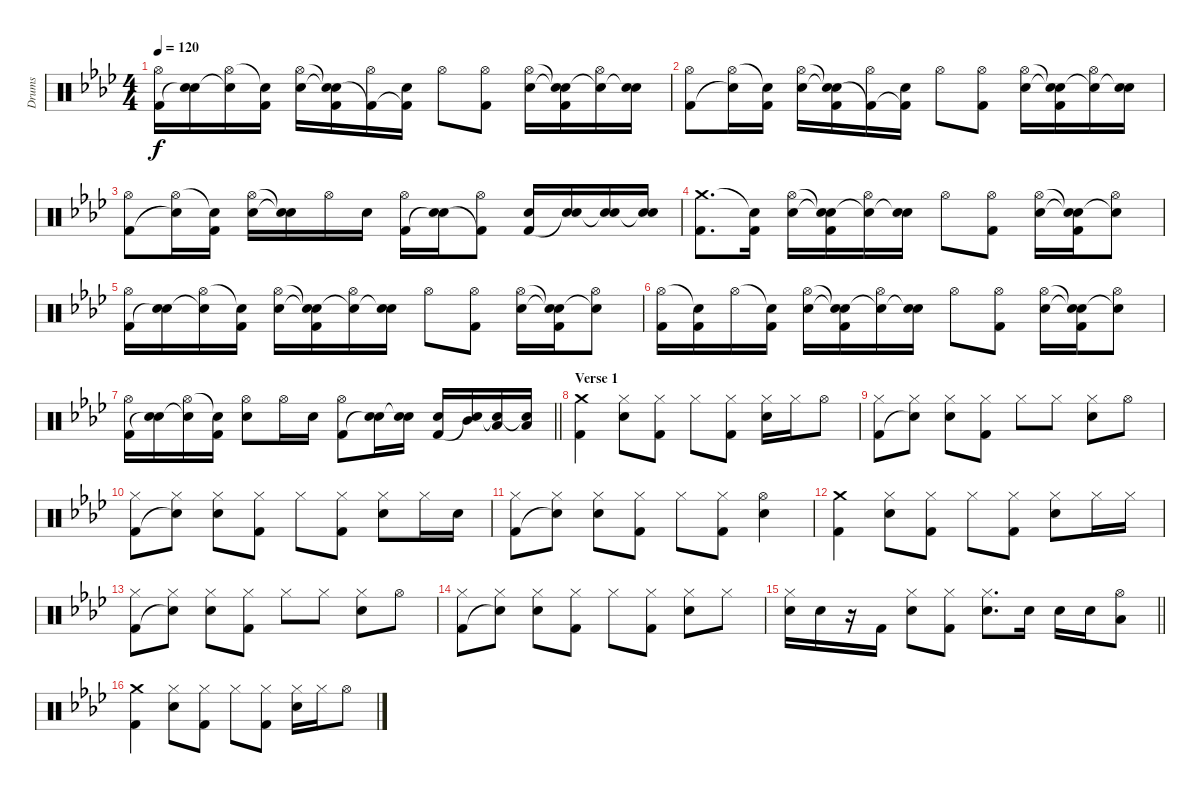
\track ("Drums" "Drums") {instrument percussion}
\staff {score}
\articulation defaults
\ts (4 4)
\tempo 120
\clef neutral
\ks fminor
("Hi-Hat (open)" "Kick (hit) 2").16{dy f} ("Electric Snare (hit)" "Snare (hit)"{t}).16 ("Hi-Hat (open)" "Snare (hit)"{t}).16 ("Snare (hit)"{t} "Kick (hit) 2").16 ("Hi-Hat (open)" "Electric Snare (hit)").16 ("Snare (hit)"{t} "Snare (hit)"{t} "Kick (hit) 2").16 ("Hi-Hat (open)" "Kick (hit) 2"{t}).16 ("Electric Snare (hit)" "Kick (hit) 2"{t}).16 "Hi-Hat (open)".8 ("Hi-Hat (open)" "Kick (hit) 2").8 ("Hi-Hat (open)" "Electric Snare (hit)").16 ("Snare (hit)"{t} "Snare (hit)"{t} "Kick (hit) 2").16 ("Hi-Hat (open)" "Snare (hit)"{t}).16 ("Electric Snare (hit)" "Snare (hit)"{t}).16 |
("Hi-Hat (open)" "Kick (hit) 2").8 ("Hi-Hat (open)" "Snare (hit)"{t}).16 ("Snare (hit)"{t} "Kick (hit) 2").16 ("Hi-Hat (open)" "Electric Snare (hit)").16 ("Snare (hit)"{t} "Snare (hit)"{t} "Kick (hit) 2").16 ("Hi-Hat (open)" "Kick (hit) 2"{t}).16 ("Electric Snare (hit)" "Kick (hit) 2"{t}).16 "Hi-Hat (open)".8 ("Hi-Hat (open)" "Kick (hit) 2").8 ("Hi-Hat (open)" "Electric Snare (hit)").16 ("Snare (hit)"{t} "Snare (hit)"{t} "Kick (hit) 2").16 ("Hi-Hat (open)" "Snare (hit)"{t}).16 ("Electric Snare (hit)" "Snare (hit)"{t}).16 |
("Hi-Hat (open)" "Kick (hit) 2").8 ("Hi-Hat (open)" "Snare (hit)"{t}).16 ("Snare (hit)"{t} "Kick (hit) 2").16 ("Hi-Hat (open)" "Electric Snare (hit)").16 ("Snare (hit)"{t} "Snare (hit)"{t}).16 "Hi-Hat (open)".16 "Electric Snare (hit)".16 ("Hi-Hat (open)" "Kick (hit) 2").16 ("Electric Snare (hit)" "Snare (hit)"{t}).16 ("Hi-Hat (open)" "Kick (hit) 2"{t}).8 ("Electric Snare (hit)" "Kick (hit) 2").16 ("Electric Snare (hit)" "Snare (hit)"{t}).16 ("Electric Snare (hit)" "Snare (hit)"{t}).16 ("Electric Snare (hit)" "Snare (hit)"{t}).16 |
("Crash medium (hit)" "Kick (hit) 2").8{d} ("Snare (hit)"{t} "Kick (hit) 2").16 ("Hi-Hat (open)" "Electric Snare (hit)").16 ("Snare (hit)"{t} "Snare (hit)"{t} "Kick (hit) 2").16 ("Hi-Hat (open)" "Snare (hit)"{t}).16 ("Electric Snare (hit)" "Snare (hit)"{t}).16 "Hi-Hat (open)".8 ("Hi-Hat (open)" "Kick (hit) 2").8 ("Hi-Hat (open)" "Electric Snare (hit)").16 ("Snare (hit)"{t} "Snare (hit)"{t} "Kick (hit) 2").16 ("Hi-Hat (open)" "Snare (hit)"{t}).8 |
("Hi-Hat (open)" "Kick (hit) 2").16 ("Electric Snare (hit)" "Snare (hit)"{t}).16 ("Hi-Hat (open)" "Snare (hit)"{t}).16 ("Snare (hit)"{t} "Kick (hit) 2").16 ("Hi-Hat (open)" "Electric Snare (hit)").16 ("Snare (hit)"{t} "Snare (hit)"{t} "Kick (hit) 2").16 ("Hi-Hat (open)" "Snare (hit)"{t}).16 ("Electric Snare (hit)" "Snare (hit)"{t}).16 "Hi-Hat (open)".8 ("Hi-Hat (open)" "Kick (hit) 2").8 ("Hi-Hat (open)" "Electric Snare (hit)").16 ("Snare (hit)"{t} "Snare (hit)"{t} "Kick (hit) 2").16 ("Hi-Hat (open)" "Snare (hit)"{t}).8 |
("Hi-Hat (open)" "Kick (hit) 2").16 ("Snare (hit)"{t} "Kick (hit) 2").16 "Hi-Hat (open)".16 ("Snare (hit)"{t} "Kick (hit) 2").16 ("Hi-Hat (open)" "Electric Snare (hit)").16 ("Snare (hit)"{t} "Snare (hit)"{t} "Kick (hit) 2").16 ("Hi-Hat (open)" "Snare (hit)"{t}).16 ("Electric Snare (hit)" "Snare (hit)"{t}).16 "Hi-Hat (open)".8 ("Hi-Hat (open)" "Kick (hit) 2").8 ("Hi-Hat (open)" "Electric Snare (hit)").16 ("Snare (hit)"{t} "Snare (hit)"{t} "Kick (hit) 2").16 ("Hi-Hat (open)" "Snare (hit)"{t}).8 |
\barLineRight lightlight
("Hi-Hat (open)" "Kick (hit) 2").16 ("Electric Snare (hit)" "Snare (hit)"{t}).16 ("Hi-Hat (open)" "Snare (hit)"{t}).16 ("Snare (hit)"{t} "Kick (hit) 2").16 ("Hi-Hat (open)" "Electric Snare (hit)").8 "Hi-Hat (open)".16 "Electric Snare (hit)".16 ("Hi-Hat (open)" "Kick (hit) 2").8 ("Electric Snare (hit)" "Snare (hit)"{t}).16 ("Electric Snare (hit)" "Snare (hit)"{t}).16 ("Electric Snare (hit)" "Kick (hit) 2").16 ("Mid Tom (hit)" "Snare (hit)"{t}).16 ("Low Tom (hit)" "Snare (hit)"{t}).16 ("Low Floor Tom (hit)" "Snare (hit)"{t}).16 |
\section ("" "Verse 1")
("Crash medium (hit)" "Kick (hit) 2").4 ("Hi-Hat (closed)" "Electric Snare (hit)").8 ("Hi-Hat (closed)" "Kick (hit) 2").8 "Hi-Hat (closed)".8 ("Hi-Hat (closed)" "Kick (hit) 2").8 ("Hi-Hat (closed)" "Electric Snare (hit)").16 "Hi-Hat (closed)".16 "Hi-Hat (open)".8 |
("Hi-Hat (closed)" "Kick (hit) 2").8 ("Hi-Hat (closed)" "Snare (hit)"{t}).8 ("Hi-Hat (closed)" "Electric Snare (hit)").8 ("Hi-Hat (closed)" "Kick (hit) 2").8 "Hi-Hat (closed)".8 "Hi-Hat (closed)".8 ("Hi-Hat (closed)" "Electric Snare (hit)").8 "Hi-Hat (open)".8 |
("Hi-Hat (closed)" "Kick (hit) 2").8 ("Hi-Hat (closed)" "Snare (hit)"{t}).8 ("Hi-Hat (closed)" "Electric Snare (hit)").8 ("Hi-Hat (closed)" "Kick (hit) 2").8 "Hi-Hat (closed)".8 ("Hi-Hat (closed)" "Kick (hit) 2").8 ("Hi-Hat (closed)" "Electric Snare (hit)").8 "Hi-Hat (closed)".16 "Electric Snare (hit)".16 |
("Hi-Hat (closed)" "Kick (hit) 2").8 ("Hi-Hat (closed)" "Snare (hit)"{t}).8 ("Hi-Hat (closed)" "Electric Snare (hit)").8 ("Hi-Hat (closed)" "Kick (hit) 2").8 "Hi-Hat (closed)".8 ("Hi-Hat (closed)" "Kick (hit) 2").8 ("Hi-Hat (open)" "Electric Snare (hit)").4 |
("Crash medium (hit)" "Kick (hit) 2").4 ("Hi-Hat (closed)" "Electric Snare (hit)").8 ("Hi-Hat (closed)" "Kick (hit) 2").8 "Hi-Hat (closed)".8 ("Hi-Hat (closed)" "Kick (hit) 2").8 ("Hi-Hat (closed)" "Electric Snare (hit)").8 "Hi-Hat (closed)".16 "Hi-Hat (closed)".16 |
("Hi-Hat (closed)" "Kick (hit) 2").8 ("Hi-Hat (closed)" "Snare (hit)"{t}).8 ("Hi-Hat (closed)" "Electric Snare (hit)").8 ("Hi-Hat (closed)" "Kick (hit) 2").8 "Hi-Hat (closed)".8 "Hi-Hat (closed)".8 ("Hi-Hat (closed)" "Electric Snare (hit)").8 "Hi-Hat (open)".8 |
("Hi-Hat (closed)" "Kick (hit) 2").8 ("Hi-Hat (closed)" "Snare (hit)"{t}).8 ("Hi-Hat (closed)" "Electric Snare (hit)").8 ("Hi-Hat (closed)" "Kick (hit) 2").8 "Hi-Hat (closed)".8 ("Hi-Hat (closed)" "Kick (hit) 2").8 ("Hi-Hat (closed)" "Electric Snare (hit)").8 "Hi-Hat (closed)".8 |
\barLineRight lightlight
("Hi-Hat (closed)" "Electric Snare (hit)").16 "Electric Snare (hit)".16 r.16 "Kick (hit) 2".16 ("Hi-Hat (closed)" "Electric Snare (hit)").8 ("Hi-Hat (closed)" "Kick (hit) 2").8 ("Hi-Hat (closed)" "Electric Snare (hit)").8{d} "Electric Snare (hit)".16 "Electric Snare (hit)".16 "Electric Snare (hit)".16 ("Hi-Hat (open)" "Low Floor Tom (hit)").8 |
("Crash medium (hit)" "Kick (hit) 2").4 ("Hi-Hat (closed)" "Electric Snare (hit)").8 ("Hi-Hat (closed)" "Kick (hit) 2").8 "Hi-Hat (closed)".8 ("Hi-Hat (closed)" "Kick (hit) 2").8 ("Hi-Hat (closed)" "Electric Snare (hit)").16 "Hi-Hat (closed)".16 "Hi-Hat (open)".8
